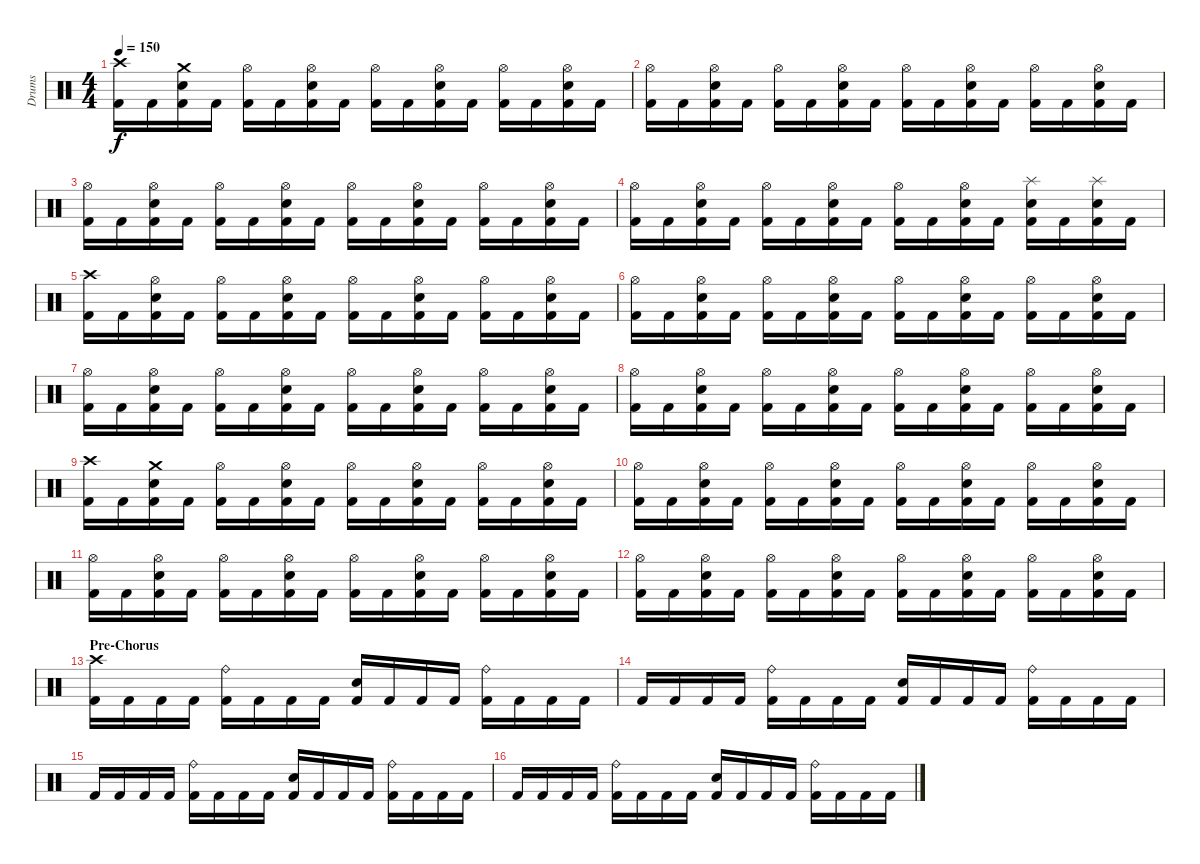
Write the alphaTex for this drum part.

\track ("Drums" "Drums") {instrument percussion}
\staff {score}
\articulation defaults
\ts (4 4)
\tempo 150
\clef neutral
\ks c
("Crash high (hit)" "Kick (hit) 2").16{dy f} "Kick (hit) 2".16 ("Crash medium (hit)" "Snare (hit) 2" "Kick (hit) 2").16 "Kick (hit) 2".16 ("Hi-Hat (open)" "Kick (hit) 2").16 "Kick (hit) 2".16 ("Hi-Hat (open)" "Snare (hit) 2" "Kick (hit) 2").16 "Kick (hit) 2".16 ("Hi-Hat (open)" "Kick (hit) 2").16 "Kick (hit) 2".16 ("Hi-Hat (open)" "Snare (hit) 2" "Kick (hit) 2").16 "Kick (hit) 2".16 ("Hi-Hat (open)" "Kick (hit) 2").16 "Kick (hit) 2".16 ("Hi-Hat (open)" "Snare (hit) 2" "Kick (hit) 2").16 "Kick (hit) 2".16 |
("Hi-Hat (open)" "Kick (hit) 2").16 "Kick (hit) 2".16 ("Hi-Hat (open)" "Snare (hit) 2" "Kick (hit) 2").16 "Kick (hit) 2".16 ("Hi-Hat (open)" "Kick (hit) 2").16 "Kick (hit) 2".16 ("Hi-Hat (open)" "Snare (hit) 2" "Kick (hit) 2").16 "Kick (hit) 2".16 ("Hi-Hat (open)" "Kick (hit) 2").16 "Kick (hit) 2".16 ("Hi-Hat (open)" "Snare (hit) 2" "Kick (hit) 2").16 "Kick (hit) 2".16 ("Hi-Hat (open)" "Kick (hit) 2").16 "Kick (hit) 2".16 ("Hi-Hat (open)" "Snare (hit) 2" "Kick (hit) 2").16 "Kick (hit) 2".16 |
("Hi-Hat (open)" "Kick (hit) 2").16 "Kick (hit) 2".16 ("Hi-Hat (open)" "Snare (hit) 2" "Kick (hit) 2").16 "Kick (hit) 2".16 ("Hi-Hat (open)" "Kick (hit) 2").16 "Kick (hit) 2".16 ("Hi-Hat (open)" "Snare (hit) 2" "Kick (hit) 2").16 "Kick (hit) 2".16 ("Hi-Hat (open)" "Kick (hit) 2").16 "Kick (hit) 2".16 ("Hi-Hat (open)" "Snare (hit) 2" "Kick (hit) 2").16 "Kick (hit) 2".16 ("Hi-Hat (open)" "Kick (hit) 2").16 "Kick (hit) 2".16 ("Hi-Hat (open)" "Snare (hit) 2" "Kick (hit) 2").16 "Kick (hit) 2".16 |
("Hi-Hat (open)" "Kick (hit) 2").16 "Kick (hit) 2".16 ("Hi-Hat (open)" "Snare (hit) 2" "Kick (hit) 2").16 "Kick (hit) 2".16 ("Hi-Hat (open)" "Kick (hit) 2").16 "Kick (hit) 2".16 ("Hi-Hat (open)" "Snare (hit) 2" "Kick (hit) 2").16 "Kick (hit) 2".16 ("Hi-Hat (open)" "Kick (hit) 2").16 "Kick (hit) 2".16 ("Hi-Hat (open)" "Snare (hit) 2" "Kick (hit) 2").16 "Kick (hit) 2".16 ("Splash (hit)" "Snare (hit) 2" "Kick (hit) 2").16 "Kick (hit) 2".16 ("Splash (hit)" "Snare (hit) 2" "Kick (hit) 2").16 "Kick (hit) 2".16 |
("Crash high (hit)" "Kick (hit) 2").16 "Kick (hit) 2".16 ("Hi-Hat (open)" "Snare (hit) 2" "Kick (hit) 2").16 "Kick (hit) 2".16 ("Hi-Hat (open)" "Kick (hit) 2").16 "Kick (hit) 2".16 ("Hi-Hat (open)" "Snare (hit) 2" "Kick (hit) 2").16 "Kick (hit) 2".16 ("Hi-Hat (open)" "Kick (hit) 2").16 "Kick (hit) 2".16 ("Hi-Hat (open)" "Snare (hit) 2" "Kick (hit) 2").16 "Kick (hit) 2".16 ("Hi-Hat (open)" "Kick (hit) 2").16 "Kick (hit) 2".16 ("Hi-Hat (open)" "Snare (hit) 2" "Kick (hit) 2").16 "Kick (hit) 2".16 |
("Hi-Hat (open)" "Kick (hit) 2").16 "Kick (hit) 2".16 ("Hi-Hat (open)" "Snare (hit) 2" "Kick (hit) 2").16 "Kick (hit) 2".16 ("Hi-Hat (open)" "Kick (hit) 2").16 "Kick (hit) 2".16 ("Hi-Hat (open)" "Snare (hit) 2" "Kick (hit) 2").16 "Kick (hit) 2".16 ("Hi-Hat (open)" "Kick (hit) 2").16 "Kick (hit) 2".16 ("Hi-Hat (open)" "Snare (hit) 2" "Kick (hit) 2").16 "Kick (hit) 2".16 ("Hi-Hat (open)" "Kick (hit) 2").16 "Kick (hit) 2".16 ("Hi-Hat (open)" "Snare (hit) 2" "Kick (hit) 2").16 "Kick (hit) 2".16 |
("Hi-Hat (open)" "Kick (hit) 2").16 "Kick (hit) 2".16 ("Hi-Hat (open)" "Snare (hit) 2" "Kick (hit) 2").16 "Kick (hit) 2".16 ("Hi-Hat (open)" "Kick (hit) 2").16 "Kick (hit) 2".16 ("Hi-Hat (open)" "Snare (hit) 2" "Kick (hit) 2").16 "Kick (hit) 2".16 ("Hi-Hat (open)" "Kick (hit) 2").16 "Kick (hit) 2".16 ("Hi-Hat (open)" "Snare (hit) 2" "Kick (hit) 2").16 "Kick (hit) 2".16 ("Hi-Hat (open)" "Kick (hit) 2").16 "Kick (hit) 2".16 ("Hi-Hat (open)" "Snare (hit) 2" "Kick (hit) 2").16 "Kick (hit) 2".16 |
("Hi-Hat (open)" "Kick (hit) 2").16 "Kick (hit) 2".16 ("Hi-Hat (open)" "Snare (hit) 2" "Kick (hit) 2").16 "Kick (hit) 2".16 ("Hi-Hat (open)" "Kick (hit) 2").16 "Kick (hit) 2".16 ("Hi-Hat (open)" "Snare (hit) 2" "Kick (hit) 2").16 "Kick (hit) 2".16 ("Hi-Hat (open)" "Kick (hit) 2").16 "Kick (hit) 2".16 ("Hi-Hat (open)" "Snare (hit) 2" "Kick (hit) 2").16 "Kick (hit) 2".16 ("Hi-Hat (open)" "Kick (hit) 2").16 "Kick (hit) 2".16 ("Hi-Hat (open)" "Snare (hit) 2" "Kick (hit) 2").16 "Kick (hit) 2".16 |
("Crash high (hit)" "Kick (hit) 2").16 "Kick (hit) 2".16 ("Crash medium (hit)" "Snare (hit) 2" "Kick (hit) 2").16 "Kick (hit) 2".16 ("Hi-Hat (open)" "Kick (hit) 2").16 "Kick (hit) 2".16 ("Hi-Hat (open)" "Snare (hit) 2" "Kick (hit) 2").16 "Kick (hit) 2".16 ("Hi-Hat (open)" "Kick (hit) 2").16 "Kick (hit) 2".16 ("Hi-Hat (open)" "Snare (hit) 2" "Kick (hit) 2").16 "Kick (hit) 2".16 ("Hi-Hat (open)" "Kick (hit) 2").16 "Kick (hit) 2".16 ("Hi-Hat (open)" "Snare (hit) 2" "Kick (hit) 2").16 "Kick (hit) 2".16 |
("Hi-Hat (open)" "Kick (hit) 2").16 "Kick (hit) 2".16 ("Hi-Hat (open)" "Snare (hit) 2" "Kick (hit) 2").16 "Kick (hit) 2".16 ("Hi-Hat (open)" "Kick (hit) 2").16 "Kick (hit) 2".16 ("Hi-Hat (open)" "Snare (hit) 2" "Kick (hit) 2").16 "Kick (hit) 2".16 ("Hi-Hat (open)" "Kick (hit) 2").16 "Kick (hit) 2".16 ("Hi-Hat (open)" "Snare (hit) 2" "Kick (hit) 2").16 "Kick (hit) 2".16 ("Hi-Hat (open)" "Kick (hit) 2").16 "Kick (hit) 2".16 ("Hi-Hat (open)" "Snare (hit) 2" "Kick (hit) 2").16 "Kick (hit) 2".16 |
("Hi-Hat (open)" "Kick (hit) 2").16 "Kick (hit) 2".16 ("Hi-Hat (open)" "Snare (hit) 2" "Kick (hit) 2").16 "Kick (hit) 2".16 ("Hi-Hat (open)" "Kick (hit) 2").16 "Kick (hit) 2".16 ("Hi-Hat (open)" "Snare (hit) 2" "Kick (hit) 2").16 "Kick (hit) 2".16 ("Hi-Hat (open)" "Kick (hit) 2").16 "Kick (hit) 2".16 ("Hi-Hat (open)" "Snare (hit) 2" "Kick (hit) 2").16 "Kick (hit) 2".16 ("Hi-Hat (open)" "Kick (hit) 2").16 "Kick (hit) 2".16 ("Hi-Hat (open)" "Snare (hit) 2" "Kick (hit) 2").16 "Kick (hit) 2".16 |
("Hi-Hat (open)" "Kick (hit) 2").16 "Kick (hit) 2".16 ("Hi-Hat (open)" "Snare (hit) 2" "Kick (hit) 2").16 "Kick (hit) 2".16 ("Hi-Hat (open)" "Kick (hit) 2").16 "Kick (hit) 2".16 ("Hi-Hat (open)" "Snare (hit) 2" "Kick (hit) 2").16 "Kick (hit) 2".16 ("Hi-Hat (open)" "Kick (hit) 2").16 "Kick (hit) 2".16 ("Hi-Hat (open)" "Snare (hit) 2" "Kick (hit) 2").16 "Kick (hit) 2".16 ("Hi-Hat (open)" "Kick (hit) 2").16 "Kick (hit) 2".16 ("Hi-Hat (open)" "Snare (hit) 2" "Kick (hit) 2").16 "Kick (hit) 2".16 |
\section ("" "Pre-Chorus")
("Crash high (hit)" "Kick (hit) 2").16 "Kick (hit) 2".16 "Kick (hit) 2".16 "Kick (hit) 2".16 ("Ride (bell)" "Kick (hit) 2").16 "Kick (hit) 2".16 "Kick (hit) 2".16 "Kick (hit) 2".16 ("Snare (hit) 2" "Kick (hit) 2").16 "Kick (hit) 2".16 "Kick (hit) 2".16 "Kick (hit) 2".16 ("Ride (bell)" "Kick (hit) 2").16 "Kick (hit) 2".16 "Kick (hit) 2".16 "Kick (hit) 2".16 |
"Kick (hit) 2".16 "Kick (hit) 2".16 "Kick (hit) 2".16 "Kick (hit) 2".16 ("Ride (bell)" "Kick (hit) 2").16 "Kick (hit) 2".16 "Kick (hit) 2".16 "Kick (hit) 2".16 ("Snare (hit) 2" "Kick (hit) 2").16 "Kick (hit) 2".16 "Kick (hit) 2".16 "Kick (hit) 2".16 ("Ride (bell)" "Kick (hit) 2").16 "Kick (hit) 2".16 "Kick (hit) 2".16 "Kick (hit) 2".16 |
"Kick (hit) 2".16 "Kick (hit) 2".16 "Kick (hit) 2".16 "Kick (hit) 2".16 ("Ride (bell)" "Kick (hit) 2").16 "Kick (hit) 2".16 "Kick (hit) 2".16 "Kick (hit) 2".16 ("Snare (hit) 2" "Kick (hit) 2").16 "Kick (hit) 2".16 "Kick (hit) 2".16 "Kick (hit) 2".16 ("Ride (bell)" "Kick (hit) 2").16 "Kick (hit) 2".16 "Kick (hit) 2".16 "Kick (hit) 2".16 |
"Kick (hit) 2".16 "Kick (hit) 2".16 "Kick (hit) 2".16 "Kick (hit) 2".16 ("Ride (bell)" "Kick (hit) 2").16 "Kick (hit) 2".16 "Kick (hit) 2".16 "Kick (hit) 2".16 ("Snare (hit) 2" "Kick (hit) 2").16 "Kick (hit) 2".16 "Kick (hit) 2".16 "Kick (hit) 2".16 ("Ride (bell)" "Kick (hit) 2").16 "Kick (hit) 2".16 "Kick (hit) 2".16 "Kick (hit) 2".16
